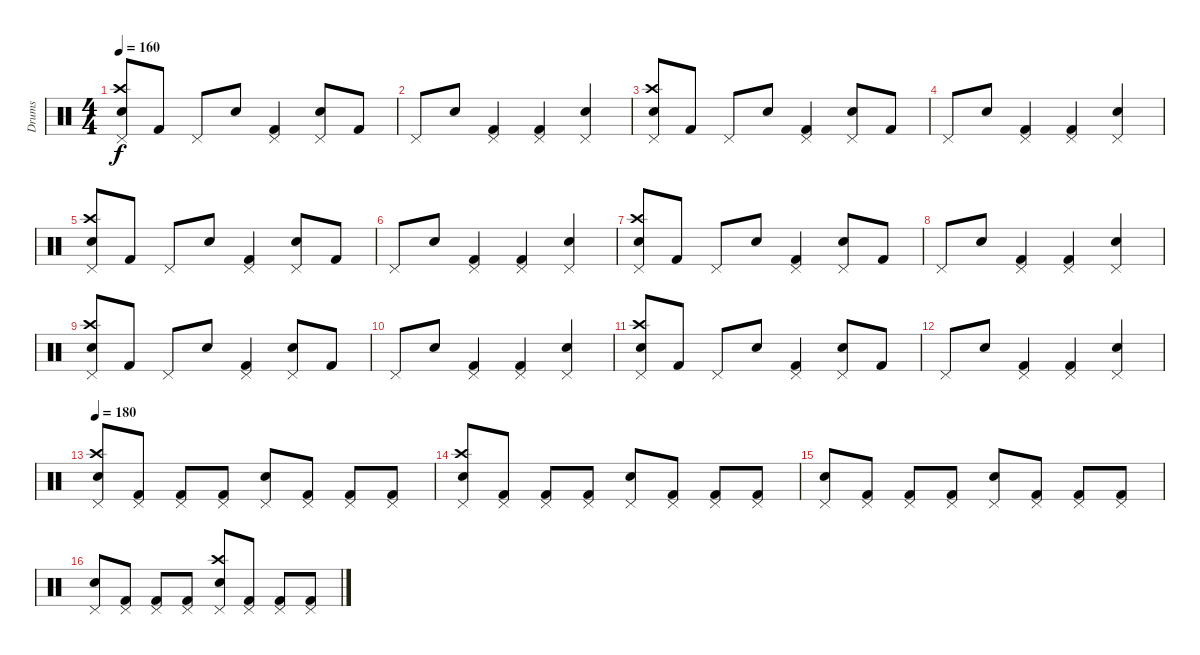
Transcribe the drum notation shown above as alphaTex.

\track ("Drums" "Drums") {instrument percussion}
\staff {score}
\articulation defaults
\ts (4 4)
\tempo 160
\clef neutral
\ks c
("Pedal Hi-Hat (hit)" "Crash high (hit)" "Snare (hit) 2").8{dy f} "Kick (hit) 2".8 "Pedal Hi-Hat (hit)".8 "Snare (hit) 2".8 ("Pedal Hi-Hat (hit)" "Kick (hit) 2").4 ("Pedal Hi-Hat (hit)" "Snare (hit) 2").8 "Kick (hit) 2".8 |
"Pedal Hi-Hat (hit)".8 "Snare (hit) 2".8 ("Pedal Hi-Hat (hit)" "Kick (hit) 2").4 ("Pedal Hi-Hat (hit)" "Kick (hit) 2").4 ("Pedal Hi-Hat (hit)" "Snare (hit) 2").4 |
("Pedal Hi-Hat (hit)" "Crash high (hit)" "Snare (hit) 2").8 "Kick (hit) 2".8 "Pedal Hi-Hat (hit)".8 "Snare (hit) 2".8 ("Pedal Hi-Hat (hit)" "Kick (hit) 2").4 ("Pedal Hi-Hat (hit)" "Snare (hit) 2").8 "Kick (hit) 2".8 |
"Pedal Hi-Hat (hit)".8 "Snare (hit) 2".8 ("Pedal Hi-Hat (hit)" "Kick (hit) 2").4 ("Pedal Hi-Hat (hit)" "Kick (hit) 2").4 ("Pedal Hi-Hat (hit)" "Snare (hit) 2").4 |
("Pedal Hi-Hat (hit)" "Crash high (hit)" "Snare (hit) 2").8 "Kick (hit) 2".8 "Pedal Hi-Hat (hit)".8 "Snare (hit) 2".8 ("Pedal Hi-Hat (hit)" "Kick (hit) 2").4 ("Pedal Hi-Hat (hit)" "Snare (hit) 2").8 "Kick (hit) 2".8 |
"Pedal Hi-Hat (hit)".8 "Snare (hit) 2".8 ("Pedal Hi-Hat (hit)" "Kick (hit) 2").4 ("Pedal Hi-Hat (hit)" "Kick (hit) 2").4 ("Pedal Hi-Hat (hit)" "Snare (hit) 2").4 |
("Pedal Hi-Hat (hit)" "Crash high (hit)" "Snare (hit) 2").8 "Kick (hit) 2".8 "Pedal Hi-Hat (hit)".8 "Snare (hit) 2".8 ("Pedal Hi-Hat (hit)" "Kick (hit) 2").4 ("Pedal Hi-Hat (hit)" "Snare (hit) 2").8 "Kick (hit) 2".8 |
"Pedal Hi-Hat (hit)".8 "Snare (hit) 2".8 ("Pedal Hi-Hat (hit)" "Kick (hit) 2").4 ("Pedal Hi-Hat (hit)" "Kick (hit) 2").4 ("Pedal Hi-Hat (hit)" "Snare (hit) 2").4 |
("Pedal Hi-Hat (hit)" "Crash high (hit)" "Snare (hit) 2").8 "Kick (hit) 2".8 "Pedal Hi-Hat (hit)".8 "Snare (hit) 2".8 ("Pedal Hi-Hat (hit)" "Kick (hit) 2").4 ("Pedal Hi-Hat (hit)" "Snare (hit) 2").8 "Kick (hit) 2".8 |
"Pedal Hi-Hat (hit)".8 "Snare (hit) 2".8 ("Pedal Hi-Hat (hit)" "Kick (hit) 2").4 ("Pedal Hi-Hat (hit)" "Kick (hit) 2").4 ("Pedal Hi-Hat (hit)" "Snare (hit) 2").4 |
("Pedal Hi-Hat (hit)" "Crash high (hit)" "Snare (hit) 2").8 "Kick (hit) 2".8 "Pedal Hi-Hat (hit)".8 "Snare (hit) 2".8 ("Pedal Hi-Hat (hit)" "Kick (hit) 2").4 ("Pedal Hi-Hat (hit)" "Snare (hit) 2").8 "Kick (hit) 2".8 |
"Pedal Hi-Hat (hit)".8 "Snare (hit) 2".8 ("Pedal Hi-Hat (hit)" "Kick (hit) 2").4 ("Pedal Hi-Hat (hit)" "Kick (hit) 2").4 ("Pedal Hi-Hat (hit)" "Snare (hit) 2").4 |
\tempo 180
("Pedal Hi-Hat (hit)" "Crash high (hit)" "Snare (hit) 2").8 ("Pedal Hi-Hat (hit)" "Kick (hit) 2").8 ("Pedal Hi-Hat (hit)" "Kick (hit) 2").8 ("Pedal Hi-Hat (hit)" "Kick (hit) 2").8 ("Pedal Hi-Hat (hit)" "Snare (hit) 2").8 ("Pedal Hi-Hat (hit)" "Kick (hit) 2").8 ("Pedal Hi-Hat (hit)" "Kick (hit) 2").8 ("Pedal Hi-Hat (hit)" "Kick (hit) 2").8 |
("Pedal Hi-Hat (hit)" "Crash high (hit)" "Snare (hit) 2").8 ("Pedal Hi-Hat (hit)" "Kick (hit) 2").8 ("Pedal Hi-Hat (hit)" "Kick (hit) 2").8 ("Pedal Hi-Hat (hit)" "Kick (hit) 2").8 ("Pedal Hi-Hat (hit)" "Snare (hit) 2").8 ("Pedal Hi-Hat (hit)" "Kick (hit) 2").8 ("Pedal Hi-Hat (hit)" "Kick (hit) 2").8 ("Pedal Hi-Hat (hit)" "Kick (hit) 2").8 |
("Pedal Hi-Hat (hit)" "Snare (hit) 2").8 ("Pedal Hi-Hat (hit)" "Kick (hit) 2").8 ("Pedal Hi-Hat (hit)" "Kick (hit) 2").8 ("Pedal Hi-Hat (hit)" "Kick (hit) 2").8 ("Pedal Hi-Hat (hit)" "Snare (hit) 2").8 ("Pedal Hi-Hat (hit)" "Kick (hit) 2").8 ("Pedal Hi-Hat (hit)" "Kick (hit) 2").8 ("Pedal Hi-Hat (hit)" "Kick (hit) 2").8 |
("Pedal Hi-Hat (hit)" "Snare (hit) 2").8 ("Pedal Hi-Hat (hit)" "Kick (hit) 2").8 ("Pedal Hi-Hat (hit)" "Kick (hit) 2").8 ("Pedal Hi-Hat (hit)" "Kick (hit) 2").8 ("Pedal Hi-Hat (hit)" "Crash high (hit)" "Snare (hit) 2").8 ("Pedal Hi-Hat (hit)" "Kick (hit) 2").8 ("Pedal Hi-Hat (hit)" "Kick (hit) 2").8 ("Pedal Hi-Hat (hit)" "Kick (hit) 2").8
